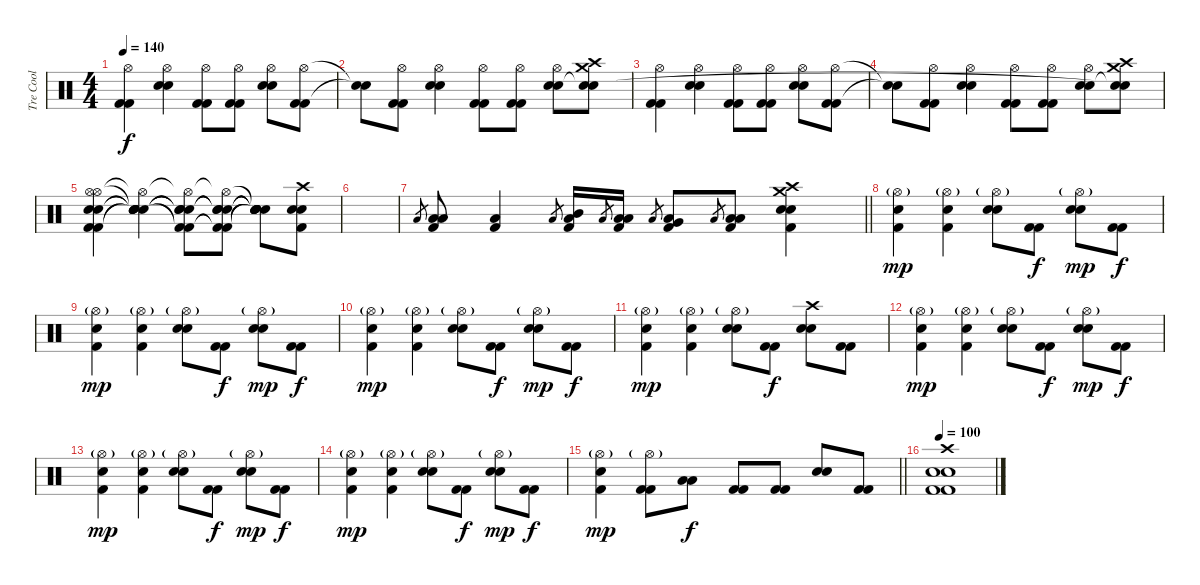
\track ("Tre Cool" "Tre Cool") {instrument percussion}
\staff {score}
\articulation defaults
\ts (4 4)
\tempo 140
\clef neutral
\ks c
("Hi-Hat (open)" "Kick (hit) 2" "Kick (hit) 2").4{dy f} ("Hi-Hat (open)" "Electric Snare (hit)" "Electric Snare (hit)").4 ("Hi-Hat (open)" "Kick (hit) 2" "Kick (hit) 2").8 ("Hi-Hat (open)" "Kick (hit) 2" "Kick (hit) 2").8 ("Hi-Hat (open)" "Electric Snare (hit)" "Electric Snare (hit)").8 ("Hi-Hat (open)" "Kick (hit) 2" "Kick (hit) 2").8 |
("Snare (hit)"{t} "Snare (hit)"{t}).8 ("Hi-Hat (open)" "Kick (hit) 2" "Kick (hit) 2").8 ("Hi-Hat (open)" "Electric Snare (hit)" "Electric Snare (hit)").4 ("Hi-Hat (open)" "Kick (hit) 2" "Kick (hit) 2").8 ("Hi-Hat (open)" "Kick (hit) 2" "Kick (hit) 2").8 ("Hi-Hat (open)" "Electric Snare (hit)" "Electric Snare (hit)").8 ("Crash high (hit)" "Crash medium (hit)" "Snare (hit)"{t} "Snare (hit)"{t}).8 |
("Hi-Hat (open)" "Kick (hit) 2" "Kick (hit) 2").4 ("Hi-Hat (open)" "Electric Snare (hit)" "Electric Snare (hit)").4 ("Hi-Hat (open)" "Kick (hit) 2" "Kick (hit) 2").8 ("Hi-Hat (open)" "Kick (hit) 2" "Kick (hit) 2").8 ("Hi-Hat (open)" "Electric Snare (hit)" "Electric Snare (hit)").8 ("Hi-Hat (open)" "Kick (hit) 2" "Kick (hit) 2").8 |
("Snare (hit)"{t} "Snare (hit)"{t}).8 ("Hi-Hat (open)" "Kick (hit) 2" "Kick (hit) 2").8 ("Hi-Hat (open)" "Electric Snare (hit)" "Electric Snare (hit)").4 ("Hi-Hat (open)" "Kick (hit) 2" "Kick (hit) 2").8 ("Hi-Hat (open)" "Kick (hit) 2" "Kick (hit) 2").8 ("Hi-Hat (open)" "Electric Snare (hit)" "Electric Snare (hit)").8 ("Crash high (hit)" "Crash medium (hit)" "Snare (hit)"{t} "Snare (hit)"{t}).8 |
("Hi-Hat (open)" "Hi-Hat (open)" "Electric Snare (hit)" "Electric Snare (hit)" "Kick (hit) 2" "Kick (hit) 2").4 ("Hi-Hat (open)"{t} "Snare (hit)"{t} "Snare (hit)"{t} "Snare (hit)"{t} "Electric Snare (hit)"{t} "Electric Snare (hit)"{t}).4 ("Hi-Hat (open)"{t} "Snare (hit)"{t} "Snare (hit)"{t} "Snare (hit)"{t} "Kick (hit) 2"{t} "Kick (hit) 2"{t}).8 ("Hi-Hat (open)"{t} "Snare (hit)"{t} "Snare (hit)"{t} "Snare (hit)"{t} "Kick (hit) 2"{t} "Kick (hit) 2"{t}).8 ("Snare (hit)"{t} "Snare (hit)"{t} "Snare (hit)"{t} "Snare (hit)"{t} "Snare (hit)"{t} "Snare (hit)"{t}).8 ("Crash high (hit)" "Electric Snare (hit)" "Electric Snare (hit)" "Kick (hit) 2").8 |
|
\barLineRight lightlight "Low Tom (hit)".8{gr}
("Low Tom (hit)" "Low Tom (hit)" "Kick (hit) 2").8 ("Low Floor Tom (hit)" "Kick (hit) 2").4 "Low Tom (hit)".8{gr} ("Mid Tom (hit)" "Low Tom (hit)" "Kick (hit) 2").16 "Low Tom (hit)".8{gr} ("Low Tom (hit)" "Low Tom (hit)" "Kick (hit) 2").16 "Low Tom (hit)".8{gr} ("Very Low Tom (hit)" "Low Tom (hit)" "Kick (hit) 2").8 "Low Tom (hit)".8{gr} ("Low Floor Tom (hit)" "Low Tom (hit)" "Kick (hit) 2").8 ("Crash high (hit)" "Electric Snare (hit)" "Electric Snare (hit)" "Crash medium (hit)" "Kick (hit) 2").4 |
("Hi-Hat (open)"{g} "Electric Snare (hit)" "Kick (hit) 2").4{dy mp} ("Hi-Hat (open)"{g} "Electric Snare (hit)" "Kick (hit) 2").4 ("Hi-Hat (open)"{g} "Electric Snare (hit)" "Electric Snare (hit)").8 ("Kick (hit) 2" "Kick (hit) 2").8{dy f} ("Hi-Hat (open)"{g} "Electric Snare (hit)" "Electric Snare (hit)").8{dy mp} ("Kick (hit) 2" "Kick (hit) 2").8{dy f} |
("Hi-Hat (open)"{g} "Electric Snare (hit)" "Kick (hit) 2").4{dy mp} ("Hi-Hat (open)"{g} "Electric Snare (hit)" "Kick (hit) 2").4 ("Hi-Hat (open)"{g} "Electric Snare (hit)" "Electric Snare (hit)").8 ("Kick (hit) 2" "Kick (hit) 2").8{dy f} ("Hi-Hat (open)"{g} "Electric Snare (hit)" "Electric Snare (hit)").8{dy mp} ("Kick (hit) 2" "Kick (hit) 2").8{dy f} |
("Hi-Hat (open)"{g} "Electric Snare (hit)" "Kick (hit) 2").4{dy mp} ("Hi-Hat (open)"{g} "Electric Snare (hit)" "Kick (hit) 2").4 ("Hi-Hat (open)"{g} "Electric Snare (hit)" "Electric Snare (hit)").8 ("Kick (hit) 2" "Kick (hit) 2").8{dy f} ("Hi-Hat (open)"{g} "Electric Snare (hit)" "Electric Snare (hit)").8{dy mp} ("Kick (hit) 2" "Kick (hit) 2").8{dy f} |
("Hi-Hat (open)"{g} "Electric Snare (hit)" "Kick (hit) 2").4{dy mp} ("Hi-Hat (open)"{g} "Electric Snare (hit)" "Kick (hit) 2").4 ("Hi-Hat (open)"{g} "Electric Snare (hit)" "Electric Snare (hit)").8 ("Kick (hit) 2" "Kick (hit) 2").8{dy f} ("Crash high (hit)" "Electric Snare (hit)" "Electric Snare (hit)").8 ("Kick (hit) 2" "Kick (hit) 2").8 |
("Hi-Hat (open)"{g} "Electric Snare (hit)" "Kick (hit) 2").4{dy mp} ("Hi-Hat (open)"{g} "Electric Snare (hit)" "Kick (hit) 2").4 ("Hi-Hat (open)"{g} "Electric Snare (hit)" "Electric Snare (hit)").8 ("Kick (hit) 2" "Kick (hit) 2").8{dy f} ("Hi-Hat (open)"{g} "Electric Snare (hit)" "Electric Snare (hit)").8{dy mp} ("Kick (hit) 2" "Kick (hit) 2").8{dy f} |
("Hi-Hat (open)"{g} "Electric Snare (hit)" "Kick (hit) 2").4{dy mp} ("Hi-Hat (open)"{g} "Electric Snare (hit)" "Kick (hit) 2").4 ("Hi-Hat (open)"{g} "Electric Snare (hit)" "Electric Snare (hit)").8 ("Kick (hit) 2" "Kick (hit) 2").8{dy f} ("Hi-Hat (open)"{g} "Electric Snare (hit)" "Electric Snare (hit)").8{dy mp} ("Kick (hit) 2" "Kick (hit) 2").8{dy f} |
("Hi-Hat (open)"{g} "Electric Snare (hit)" "Kick (hit) 2").4{dy mp} ("Hi-Hat (open)"{g} "Electric Snare (hit)" "Kick (hit) 2").4 ("Hi-Hat (open)"{g} "Electric Snare (hit)" "Electric Snare (hit)").8 ("Kick (hit) 2" "Kick (hit) 2").8{dy f} ("Hi-Hat (open)"{g} "Electric Snare (hit)" "Electric Snare (hit)").8{dy mp} ("Kick (hit) 2" "Kick (hit) 2").8{dy f} |
\barLineRight lightlight
("Hi-Hat (open)"{g} "Electric Snare (hit)" "Kick (hit) 2").4{dy mp} ("Hi-Hat (open)"{g} "Kick (hit) 2" "Kick (hit) 2").8 ("Low Tom (hit)" "Low Tom (hit)").8{dy f} ("Kick (hit) 2" "Kick (hit) 2").8 ("Kick (hit) 2" "Kick (hit) 2").8 ("Electric Snare (hit)" "Electric Snare (hit)").8 ("Kick (hit) 2" "Kick (hit) 2").8 |
\tempo 100
("Crash high (hit)" "Electric Snare (hit)" "Electric Snare (hit)" "Kick (hit) 2" "Kick (hit) 2").1{volume 0}
